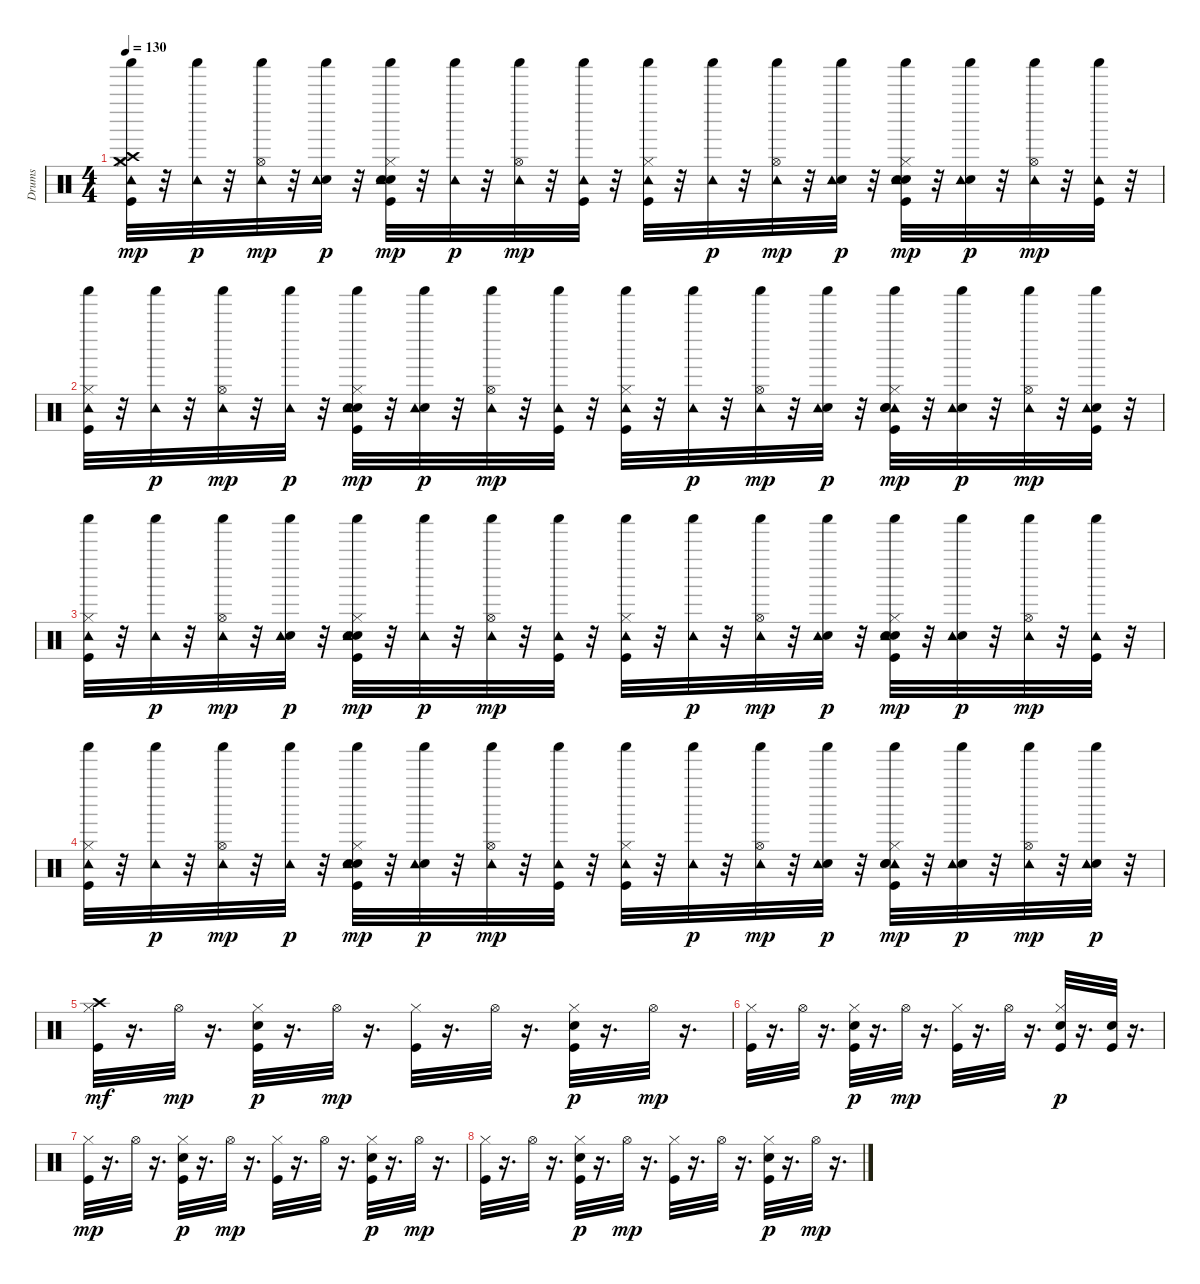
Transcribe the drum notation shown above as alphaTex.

\track ("Drums" "Drums") {instrument percussion}
\staff {score}
\articulation defaults
\ts (4 4)
\tempo 130
\clef neutral
\ks c
("Kick (hit)" "Hi-Hat (closed)" "Crash high (hit)" "Crash medium (hit)" "Tambourine (hit)" "Shaker (hit)").32{dy mp} r.32 ("Tambourine (hit)" "Shaker (hit)").32{dy p} r.32 ("Tambourine (hit)" "Hi-Hat (open)" "Shaker (hit)").32{dy mp} r.32 ("Electric Snare (hit)" "Tambourine (hit)" "Shaker (hit)").32{dy p} r.32 ("Kick (hit)" "Hi-Hat (closed)" "Hand Clap (hit)" "Tambourine (hit)" "Shaker (hit)" "Snare (hit) 2").32{dy mp} r.32 ("Tambourine (hit)" "Shaker (hit)").32{dy p} r.32 ("Tambourine (hit)" "Hi-Hat (open)" "Shaker (hit)").32{dy mp} r.32 ("Tambourine (hit)" "Shaker (hit)" "Kick (hit)").32 r.32 ("Kick (hit)" "Hi-Hat (closed)" "Tambourine (hit)" "Shaker (hit)").32 r.32 ("Tambourine (hit)" "Shaker (hit)").32{dy p} r.32 ("Tambourine (hit)" "Hi-Hat (open)" "Shaker (hit)").32{dy mp} r.32 ("Electric Snare (hit)" "Tambourine (hit)" "Shaker (hit)").32{dy p} r.32 ("Kick (hit)" "Hi-Hat (closed)" "Hand Clap (hit)" "Tambourine (hit)" "Shaker (hit)" "Snare (hit) 2").32{dy mp} r.32 ("Electric Snare (hit)" "Tambourine (hit)" "Shaker (hit)").32{dy p} r.32 ("Tambourine (hit)" "Hi-Hat (open)" "Shaker (hit)").32{dy mp} r.32 ("Tambourine (hit)" "Shaker (hit)" "Kick (hit)").32 r.32 |
("Kick (hit)" "Hi-Hat (closed)" "Tambourine (hit)" "Shaker (hit)").32 r.32 ("Tambourine (hit)" "Shaker (hit)").32{dy p} r.32 ("Tambourine (hit)" "Hi-Hat (open)" "Shaker (hit)").32{dy mp} r.32 ("Tambourine (hit)" "Shaker (hit)").32{dy p} r.32 ("Kick (hit)" "Hi-Hat (closed)" "Hand Clap (hit)" "Tambourine (hit)" "Shaker (hit)" "Snare (hit) 2").32{dy mp} r.32 ("Electric Snare (hit)" "Tambourine (hit)" "Shaker (hit)").32{dy p} r.32 ("Tambourine (hit)" "Hi-Hat (open)" "Shaker (hit)").32{dy mp} r.32 ("Tambourine (hit)" "Shaker (hit)" "Kick (hit)").32 r.32 ("Kick (hit)" "Hi-Hat (closed)" "Tambourine (hit)" "Shaker (hit)").32 r.32 ("Tambourine (hit)" "Shaker (hit)").32{dy p} r.32 ("Tambourine (hit)" "Hi-Hat (open)" "Shaker (hit)").32{dy mp} r.32 ("Electric Snare (hit)" "Tambourine (hit)" "Shaker (hit)").32{dy p} r.32 ("Kick (hit)" "Hi-Hat (closed)" "Tambourine (hit)" "Shaker (hit)" "Hand Clap (hit)" "Snare (hit) 2").32{dy mp} r.32 ("Electric Snare (hit)" "Tambourine (hit)" "Shaker (hit)").32{dy p} r.32 ("Tambourine (hit)" "Hi-Hat (open)" "Shaker (hit)").32{dy mp} r.32 ("Electric Snare (hit)" "Tambourine (hit)" "Shaker (hit)" "Kick (hit)").32 r.32 |
("Kick (hit)" "Hi-Hat (closed)" "Tambourine (hit)" "Shaker (hit)").32 r.32 ("Tambourine (hit)" "Shaker (hit)").32{dy p} r.32 ("Tambourine (hit)" "Hi-Hat (open)" "Shaker (hit)").32{dy mp} r.32 ("Electric Snare (hit)" "Tambourine (hit)" "Shaker (hit)").32{dy p} r.32 ("Kick (hit)" "Hi-Hat (closed)" "Hand Clap (hit)" "Tambourine (hit)" "Shaker (hit)" "Snare (hit) 2").32{dy mp} r.32 ("Tambourine (hit)" "Shaker (hit)").32{dy p} r.32 ("Tambourine (hit)" "Hi-Hat (open)" "Shaker (hit)").32{dy mp} r.32 ("Tambourine (hit)" "Shaker (hit)" "Kick (hit)").32 r.32 ("Kick (hit)" "Hi-Hat (closed)" "Tambourine (hit)" "Shaker (hit)").32 r.32 ("Tambourine (hit)" "Shaker (hit)").32{dy p} r.32 ("Tambourine (hit)" "Hi-Hat (open)" "Shaker (hit)").32{dy mp} r.32 ("Electric Snare (hit)" "Tambourine (hit)" "Shaker (hit)").32{dy p} r.32 ("Kick (hit)" "Hi-Hat (closed)" "Hand Clap (hit)" "Tambourine (hit)" "Shaker (hit)" "Snare (hit) 2").32{dy mp} r.32 ("Electric Snare (hit)" "Tambourine (hit)" "Shaker (hit)").32{dy p} r.32 ("Tambourine (hit)" "Hi-Hat (open)" "Shaker (hit)").32{dy mp} r.32 ("Tambourine (hit)" "Shaker (hit)" "Kick (hit)").32 r.32 |
("Kick (hit)" "Hi-Hat (closed)" "Tambourine (hit)" "Shaker (hit)").32 r.32 ("Tambourine (hit)" "Shaker (hit)").32{dy p} r.32 ("Tambourine (hit)" "Hi-Hat (open)" "Shaker (hit)").32{dy mp} r.32 ("Tambourine (hit)" "Shaker (hit)").32{dy p} r.32 ("Kick (hit)" "Hi-Hat (closed)" "Hand Clap (hit)" "Tambourine (hit)" "Shaker (hit)" "Snare (hit) 2").32{dy mp} r.32 ("Electric Snare (hit)" "Tambourine (hit)" "Shaker (hit)").32{dy p} r.32 ("Tambourine (hit)" "Hi-Hat (open)" "Shaker (hit)").32{dy mp} r.32 ("Tambourine (hit)" "Shaker (hit)" "Kick (hit)").32 r.32 ("Kick (hit)" "Hi-Hat (closed)" "Tambourine (hit)" "Shaker (hit)").32 r.32 ("Tambourine (hit)" "Shaker (hit)").32{dy p} r.32 ("Tambourine (hit)" "Hi-Hat (open)" "Shaker (hit)").32{dy mp} r.32 ("Electric Snare (hit)" "Tambourine (hit)" "Shaker (hit)").32{dy p} r.32 ("Kick (hit)" "Hi-Hat (closed)" "Tambourine (hit)" "Shaker (hit)" "Hand Clap (hit)" "Snare (hit) 2").32{dy mp} r.32 ("Electric Snare (hit)" "Tambourine (hit)" "Shaker (hit)").32{dy p} r.32 ("Tambourine (hit)" "Hi-Hat (open)" "Shaker (hit)").32{dy mp} r.32 ("Electric Snare (hit)" "Tambourine (hit)" "Shaker (hit)").32{dy p} r.32 |
("Kick (hit)" "Hi-Hat (closed)" "Crash high (hit)").32{dy mf} r.16{d} "Hi-Hat (open)".32{dy mp} r.16{d} ("Kick (hit)" "Hi-Hat (closed)" "Electric Snare (hit)").32{dy p} r.16{d} "Hi-Hat (open)".32{dy mp} r.16{d} ("Kick (hit)" "Hi-Hat (closed)").32 r.16{d} "Hi-Hat (open)".32 r.16{d} ("Kick (hit)" "Hi-Hat (closed)" "Electric Snare (hit)").32{dy p} r.16{d} "Hi-Hat (open)".32{dy mp} r.16{d} |
("Kick (hit)" "Hi-Hat (closed)").32 r.16{d} "Hi-Hat (open)".32 r.16{d} ("Kick (hit)" "Hi-Hat (closed)" "Electric Snare (hit)").32{dy p} r.16{d} "Hi-Hat (open)".32{dy mp} r.16{d} ("Kick (hit)" "Hi-Hat (closed)").32 r.16{d} "Hi-Hat (open)".32 r.16{d} ("Kick (hit)" "Hi-Hat (closed)" "Electric Snare (hit)").32{dy p} r.16{d} ("Kick (hit)" "Electric Snare (hit)").32 r.16{d} |
("Kick (hit)" "Hi-Hat (closed)").32{dy mp} r.16{d} "Hi-Hat (open)".32 r.16{d} ("Kick (hit)" "Hi-Hat (closed)" "Electric Snare (hit)").32{dy p} r.16{d} "Hi-Hat (open)".32{dy mp} r.16{d} ("Kick (hit)" "Hi-Hat (closed)").32 r.16{d} "Hi-Hat (open)".32 r.16{d} ("Kick (hit)" "Hi-Hat (closed)" "Electric Snare (hit)").32{dy p} r.16{d} "Hi-Hat (open)".32{dy mp} r.16{d} |
("Kick (hit)" "Hi-Hat (closed)").32 r.16{d} "Hi-Hat (open)".32 r.16{d} ("Kick (hit)" "Hi-Hat (closed)" "Electric Snare (hit)").32{dy p} r.16{d} "Hi-Hat (open)".32{dy mp} r.16{d} ("Kick (hit)" "Hi-Hat (closed)").32 r.16{d} "Hi-Hat (open)".32 r.16{d} ("Kick (hit)" "Hi-Hat (closed)" "Electric Snare (hit)").32{dy p} r.16{d} "Hi-Hat (open)".32{dy mp} r.16{d}
